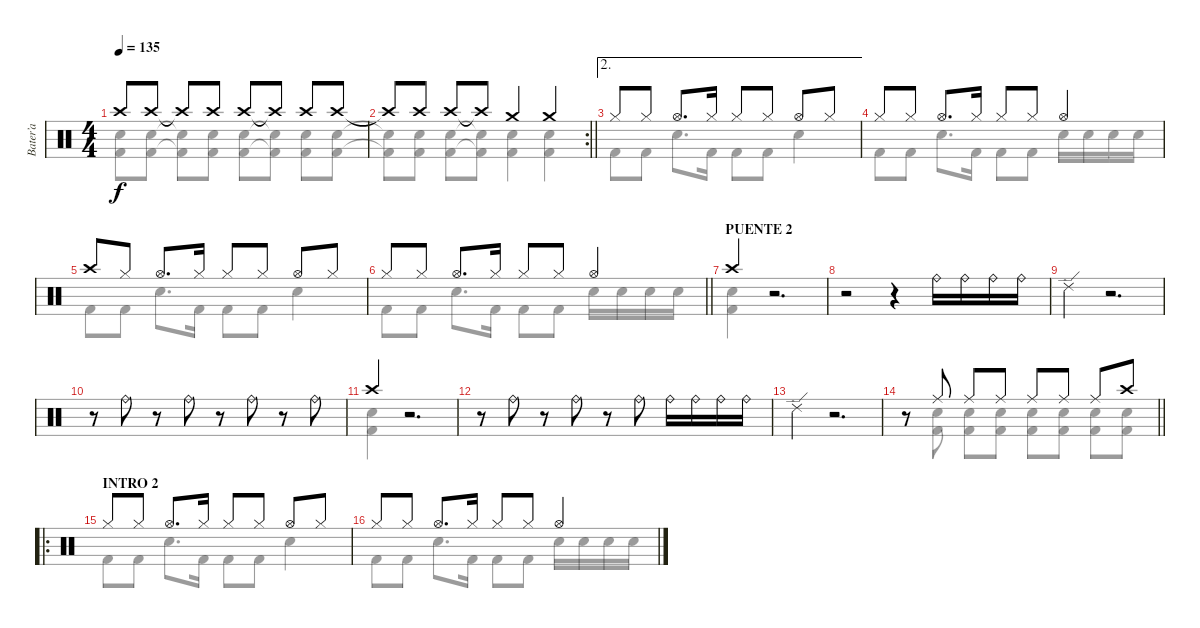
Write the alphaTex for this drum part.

\track ("Bater’a" "Bater’a") {instrument percussion}
\staff {score}
\articulation defaults
\voice
\ts (4 4)
\tempo 135
\clef neutral
\ks c "Crash high (hit)".8{dy f} "Crash high (hit)".8 "Crash high (hit)"{t}.8 "Crash high (hit)".8 "Crash high (hit)".8 "Crash high (hit)"{t}.8 "Crash high (hit)".8 "Crash high (hit)".8
|
\rc 2
\barLineRight lightlight "Crash high (hit)"{t}.8 "Crash high (hit)".8 "Crash high (hit)".8 "Crash high (hit)"{t}.8 "Crash medium (hit)".4 "Crash medium (hit)".4
|
\ae 2 "Hi-Hat (closed)".8 "Hi-Hat (closed)".8 "Hi-Hat (open)".8{d} "Hi-Hat (closed)".16 "Hi-Hat (closed)".8 "Hi-Hat (closed)".8 "Hi-Hat (open)".8 "Hi-Hat (closed)".8
|
"Hi-Hat (closed)".8 "Hi-Hat (closed)".8 "Hi-Hat (open)".8{d} "Hi-Hat (closed)".16 "Hi-Hat (closed)".8 "Hi-Hat (closed)".8 "Hi-Hat (open)".4 |
"Crash high (hit)".8 "Hi-Hat (closed)".8 "Hi-Hat (open)".8{d} "Hi-Hat (closed)".16 "Hi-Hat (closed)".8 "Hi-Hat (closed)".8 "Hi-Hat (open)".8 "Hi-Hat (closed)".8 |
\barLineRight lightlight "Hi-Hat (closed)".8 "Hi-Hat (closed)".8 "Hi-Hat (open)".8{d} "Hi-Hat (closed)".16 "Hi-Hat (closed)".8 "Hi-Hat (closed)".8 "Hi-Hat (open)".4
|
\section ("" "PUENTE 2")
"Crash high (hit)".4 r.2{d} |
r.2 r.4 "Ride (bell)".16 "Ride (bell)".16 "Ride (bell)".16 "Ride (bell)".16 |
"Ride (edge) 2".4 r.2{d} |
r.8 "Ride (bell)".8 r.8 "Ride (bell)".8 r.8 "Ride (bell)".8 r.8 "Ride (bell)".8 |
"Crash high (hit)".4 r.2{d} |
r.8 "Ride (bell)".8 r.8 "Ride (bell)".8 r.8 "Ride (bell)".8 "Ride (bell)".16 "Ride (bell)".16 "Ride (bell)".16 "Ride (bell)".16 |
"Ride (edge) 2".4 r.2{d} |
\barLineRight lightlight
r.8 "Ride (middle)".8 "Ride (middle)".8 "Ride (middle)".8 "Ride (middle)".8 "Ride (middle)".8 "Ride (middle)".8 "Crash high (hit)".8 |
\ro
\section ("" "INTRO 2")
"Hi-Hat (closed)".8 "Hi-Hat (closed)".8 "Hi-Hat (open)".8{d} "Hi-Hat (closed)".16 "Hi-Hat (closed)".8 "Hi-Hat (closed)".8 "Hi-Hat (open)".8 "Hi-Hat (closed)".8 |
"Hi-Hat (closed)".8 "Hi-Hat (closed)".8 "Hi-Hat (open)".8{d} "Hi-Hat (closed)".16 "Hi-Hat (closed)".8 "Hi-Hat (closed)".8 "Hi-Hat (open)".4
\voice
\clef neutral
\ottava regular
\simile none
\ks c
("Snare (hit) 2" "Kick (hit) 2").8{dy f} ("Snare (hit) 2" "Kick (hit) 2").8 ("Snare (hit) 2"{t} "Kick (hit) 2"{t}).8 ("Snare (hit) 2" "Kick (hit) 2").8 ("Snare (hit) 2" "Kick (hit) 2").8 ("Snare (hit) 2"{t} "Kick (hit) 2"{t}).8 ("Snare (hit) 2" "Kick (hit) 2").8 ("Snare (hit) 2" "Kick (hit) 2").8 |
\barLineRight lightlight
("Snare (hit) 2"{t} "Kick (hit) 2"{t}).8 ("Snare (hit) 2" "Kick (hit) 2").8 ("Snare (hit) 2" "Kick (hit) 2").8 ("Snare (hit) 2"{t} "Kick (hit) 2"{t}).8 ("Snare (hit) 2" "Kick (hit) 2").4 ("Snare (hit) 2" "Kick (hit) 2").4 |
"Kick (hit) 2".8 "Kick (hit) 2".8 "Snare (hit) 2".8{d} "Kick (hit) 2".16 "Kick (hit) 2".8 "Kick (hit) 2".8 "Snare (hit) 2".4 |
"Kick (hit) 2".8 "Kick (hit) 2".8 "Snare (hit) 2".8{d} "Kick (hit) 2".16 "Kick (hit) 2".8 "Kick (hit) 2".8 "Snare (hit) 2".16 "Snare (hit) 2".16 "Snare (hit) 2".16 "Snare (hit) 2".16 |
"Kick (hit) 2".8 "Kick (hit) 2".8 "Snare (hit) 2".8{d} "Kick (hit) 2".16 "Kick (hit) 2".8 "Kick (hit) 2".8 "Snare (hit) 2".4 |
\barLineRight lightlight "Kick (hit) 2".8 "Kick (hit) 2".8 "Snare (hit) 2".8{d} "Kick (hit) 2".16 "Kick (hit) 2".8 "Kick (hit) 2".8 "Snare (hit) 2".16 "Snare (hit) 2".16 "Snare (hit) 2".16 "Snare (hit) 2".16
|
("Snare (hit) 2" "Kick (hit) 2").4 r.2{d} |
|
|
|
("Snare (hit) 2" "Kick (hit) 2").4 r.2{d} |
|
|
\barLineRight lightlight
r.8 ("Snare (hit) 2" "Kick (hit) 2").8 ("Snare (hit) 2" "Kick (hit) 2").8 ("Snare (hit) 2" "Kick (hit) 2").8 ("Snare (hit) 2" "Kick (hit) 2").8 ("Snare (hit) 2" "Kick (hit) 2").8 ("Snare (hit) 2" "Kick (hit) 2").8 ("Snare (hit) 2" "Kick (hit) 2").8 |
"Kick (hit) 2".8 "Kick (hit) 2".8 "Snare (hit) 2".8{d} "Kick (hit) 2".16 "Kick (hit) 2".8 "Kick (hit) 2".8 "Snare (hit) 2".4 |
"Kick (hit) 2".8 "Kick (hit) 2".8 "Snare (hit) 2".8{d} "Kick (hit) 2".16 "Kick (hit) 2".8 "Kick (hit) 2".8 "Snare (hit) 2".16 "Snare (hit) 2".16 "Snare (hit) 2".16 "Snare (hit) 2".16
